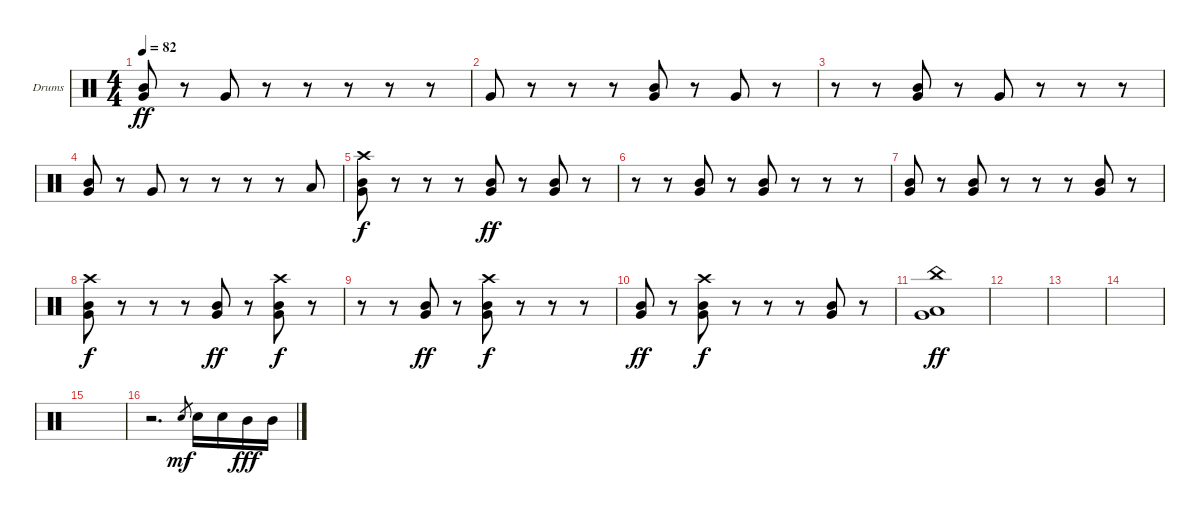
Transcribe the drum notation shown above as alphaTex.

\defaultSystemsLayout 4
\bracketExtendMode groupsimilarinstruments
\firstSystemTrackNameOrientation horizontal
\otherSystemsTrackNameOrientation horizontal
\track ("Drumkit" "Drums") {instrument percussion}
\staff {score}
\articulation defaults
\ts (4 4)
\tempo 82
\clef neutral
\scale
0.333333
\ks c
("Very Low Tom (hit)" "Mid Tom (hit)").8{dy ff} r.8 "Very Low Tom (hit)".8 r.8 r.8 r.8 r.8 r.8 |
\scale
0.333333 "Very Low Tom (hit)".8 r.8 r.8 r.8 ("Very Low Tom (hit)" "Mid Tom (hit)").8 r.8 "Very Low Tom (hit)".8 r.8 |
\scale
0.333333 r.8 r.8 ("Very Low Tom (hit)" "Mid Tom (hit)").8 r.8 "Very Low Tom (hit)".8 r.8 r.8 r.8 |
\scale
0.333333 ("Very Low Tom (hit)" "Mid Tom (hit)").8 r.8 "Very Low Tom (hit)".8 r.8 r.8 r.8 r.8 "Low Tom (hit)".8 |
\scale
0.333333 ("Very Low Tom (hit)" "Mid Tom (hit)" "Crash high (hit)").8{dy f} r.8 r.8 r.8 ("Very Low Tom (hit)" "Mid Tom (hit)").8{dy ff} r.8 ("Very Low Tom (hit)" "Mid Tom (hit)").8 r.8 |
\scale
0.333333 r.8 r.8 ("Very Low Tom (hit)" "Mid Tom (hit)").8 r.8 ("Very Low Tom (hit)" "Mid Tom (hit)").8 r.8 r.8 r.8 |
\scale
0.333333 ("Very Low Tom (hit)" "Mid Tom (hit)").8 r.8 ("Very Low Tom (hit)" "Mid Tom (hit)").8 r.8 r.8 r.8 ("Very Low Tom (hit)" "Mid Tom (hit)").8 r.8 |
\scale
0.333333 ("Very Low Tom (hit)" "Mid Tom (hit)" "Crash high (hit)").8{dy f} r.8 r.8 r.8 ("Very Low Tom (hit)" "Mid Tom (hit)").8{dy ff} r.8 ("Very Low Tom (hit)" "Mid Tom (hit)" "Crash high (hit)").8{dy f} r.8 |
\scale
0.333333 r.8 r.8 ("Very Low Tom (hit)" "Mid Tom (hit)").8{dy ff} r.8 ("Very Low Tom (hit)" "Mid Tom (hit)" "Crash high (hit)").8{dy f} r.8 r.8 r.8 |
\scale
0.333333 ("Very Low Tom (hit)" "Mid Tom (hit)").8{dy ff} r.8 ("Very Low Tom (hit)" "Mid Tom (hit)" "Crash high (hit)").8{dy f} r.8 r.8 r.8 ("Very Low Tom (hit)" "Mid Tom (hit)").8 r.8 |
\scale
0.333333 ("Very Low Tom (hit)" "Low Tom (hit)" "China (hit)").1{dy ff} |
\scale
0.333333 |
\scale
0.333333 |
\scale
0.333333 |
|
r.2{d} "Snare (hit) 2".8{gr dy mf} "Snare (hit) 2".16 "Snare (hit) 2".16 "Mid Tom (hit)".16{dy fff} "Mid Tom (hit)".16
